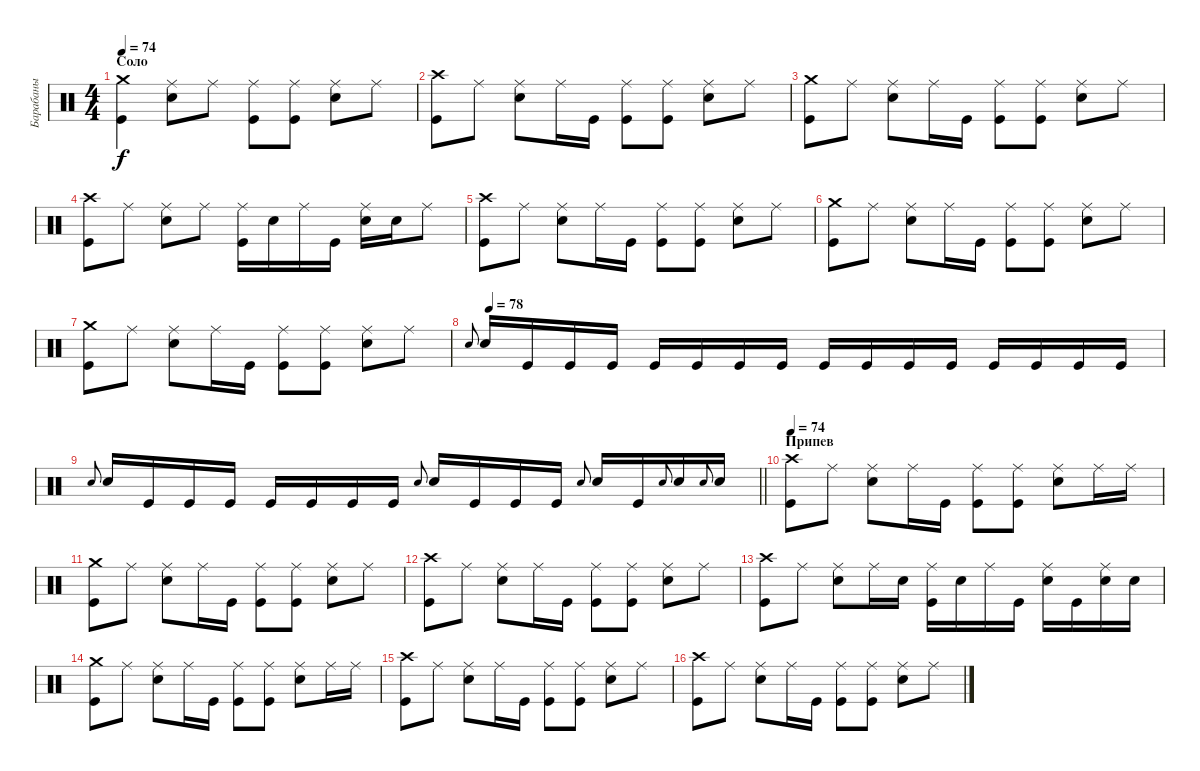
\track ("Барабаны" "Барабаны") {instrument percussion}
\staff {score}
\articulation defaults
\ts (4 4)
\section ("" "Соло")
\tempo 74
\clef neutral
\ks c
("Kick (hit)" "Crash medium (hit)").4{dy f} ("Snare (hit) 2" "Ride (middle)").8 "Ride (middle)".8 ("Kick (hit)" "Ride (middle)").8 ("Kick (hit)" "Ride (middle)").8 ("Snare (hit) 2" "Ride (middle)").8 "Ride (middle)".8 |
("Kick (hit)" "Crash high (hit)").8 "Ride (middle)".8 ("Snare (hit) 2" "Ride (middle)").8 "Ride (middle)".16 "Kick (hit)".16 ("Kick (hit)" "Ride (middle)").8 ("Kick (hit)" "Ride (middle)").8 ("Snare (hit) 2" "Ride (middle)").8 "Ride (middle)".8 |
("Kick (hit)" "Crash medium (hit)").8 "Ride (middle)".8 ("Snare (hit) 2" "Ride (middle)").8 "Ride (middle)".16 "Kick (hit)".16 ("Kick (hit)" "Ride (middle)").8 ("Kick (hit)" "Ride (middle)").8 ("Snare (hit) 2" "Ride (middle)").8 "Ride (middle)".8 |
("Kick (hit)" "Crash high (hit)").8 "Ride (middle)".8 ("Snare (hit) 2" "Ride (middle)").8 "Ride (middle)".8 ("Kick (hit)" "Ride (middle)").16 "Snare (hit) 2".16 "Ride (middle)".16 "Kick (hit)".16 ("Snare (hit) 2" "Ride (middle)").16 "Snare (hit) 2".16 "Ride (middle)".8 |
("Kick (hit)" "Crash high (hit)").8 "Ride (middle)".8 ("Snare (hit) 2" "Ride (middle)").8 "Ride (middle)".16 "Kick (hit)".16 ("Kick (hit)" "Ride (middle)").8 ("Kick (hit)" "Ride (middle)").8 ("Snare (hit) 2" "Ride (middle)").8 "Ride (middle)".8 |
("Kick (hit)" "Crash medium (hit)").8 "Ride (middle)".8 ("Snare (hit) 2" "Ride (middle)").8 "Ride (middle)".16 "Kick (hit)".16 ("Kick (hit)" "Ride (middle)").8 ("Kick (hit)" "Ride (middle)").8 ("Snare (hit) 2" "Ride (middle)").8 "Ride (middle)".8 |
("Kick (hit)" "Crash medium (hit)").8 "Ride (middle)".8 ("Snare (hit) 2" "Ride (middle)").8 "Ride (middle)".16 "Kick (hit)".16 ("Kick (hit)" "Ride (middle)").8 ("Kick (hit)" "Ride (middle)").8 ("Snare (hit) 2" "Ride (middle)").8 "Ride (middle)".8 |
\tempo (78 0.03125)
"Snare (hit) 2".8{gr onbeat} "Snare (hit) 2".16 "Kick (hit)".16 "Kick (hit)".16 "Kick (hit)".16 "Kick (hit)".16 "Kick (hit)".16 "Kick (hit)".16 "Kick (hit)".16 "Kick (hit)".16 "Kick (hit)".16 "Kick (hit)".16 "Kick (hit)".16 "Kick (hit)".16 "Kick (hit)".16 "Kick (hit)".16 "Kick (hit)".16 |
\barLineRight lightlight "Snare (hit) 2".8{gr onbeat} "Snare (hit) 2".16 "Kick (hit)".16 "Kick (hit)".16 "Kick (hit)".16 "Kick (hit)".16 "Kick (hit)".16 "Kick (hit)".16 "Kick (hit)".16 "Snare (hit) 2".8{gr onbeat} "Snare (hit) 2".16 "Kick (hit)".16 "Kick (hit)".16 "Kick (hit)".16 "Snare (hit) 2".8{gr onbeat} "Snare (hit) 2".16 "Kick (hit)".16 "Snare (hit) 2".8{gr onbeat} "Snare (hit) 2".16 "Snare (hit) 2".8{gr onbeat} "Snare (hit) 2".16
|
\section ("" "Припев")
\tempo 74
("Kick (hit)" "Crash high (hit)").8 "Ride (middle)".8 ("Snare (hit) 2" "Ride (middle)").8 "Ride (middle)".16 "Kick (hit)".16 ("Kick (hit)" "Ride (middle)").8 ("Kick (hit)" "Ride (middle)").8 ("Snare (hit) 2" "Ride (middle)").8 "Ride (middle)".16 "Ride (middle)".16 |
("Kick (hit)" "Crash medium (hit)").8 "Ride (middle)".8 ("Snare (hit) 2" "Ride (middle)").8 "Ride (middle)".16 "Kick (hit)".16 ("Kick (hit)" "Ride (middle)").8 ("Kick (hit)" "Ride (middle)").8 ("Snare (hit) 2" "Ride (middle)").8 "Ride (middle)".8 |
("Kick (hit)" "Crash high (hit)").8 "Ride (middle)".8 ("Snare (hit) 2" "Ride (middle)").8 "Ride (middle)".16 "Kick (hit)".16 ("Kick (hit)" "Ride (middle)").8 ("Kick (hit)" "Ride (middle)").8 ("Snare (hit) 2" "Ride (middle)").8 "Ride (middle)".8 |
("Kick (hit)" "Crash high (hit)").8 "Ride (middle)".8 ("Snare (hit) 2" "Ride (middle)").8 "Ride (middle)".16 "Snare (hit) 2".16 ("Kick (hit)" "Ride (middle)").16 "Snare (hit) 2".16 "Ride (middle)".16 "Kick (hit)".16 ("Snare (hit) 2" "Ride (middle)").16 "Kick (hit)".16 ("Snare (hit) 2" "Ride (middle)").16 "Snare (hit) 2".16 |
("Kick (hit)" "Crash medium (hit)").8 "Ride (middle)".8 ("Snare (hit) 2" "Ride (middle)").8 "Ride (middle)".16 "Kick (hit)".16 ("Kick (hit)" "Ride (middle)").8 ("Kick (hit)" "Ride (middle)").8 ("Snare (hit) 2" "Ride (middle)").8 "Ride (middle)".16 "Ride (middle)".16 |
("Kick (hit)" "Crash high (hit)").8 "Ride (middle)".8 ("Snare (hit) 2" "Ride (middle)").8 "Ride (middle)".16 "Kick (hit)".16 ("Kick (hit)" "Ride (middle)").8 ("Kick (hit)" "Ride (middle)").8 ("Snare (hit) 2" "Ride (middle)").8 "Ride (middle)".8 |
("Kick (hit)" "Crash high (hit)").8 "Ride (middle)".8 ("Snare (hit) 2" "Ride (middle)").8 "Ride (middle)".16 "Kick (hit)".16 ("Kick (hit)" "Ride (middle)").8 ("Kick (hit)" "Ride (middle)").8 ("Snare (hit) 2" "Ride (middle)").8 "Ride (middle)".8
